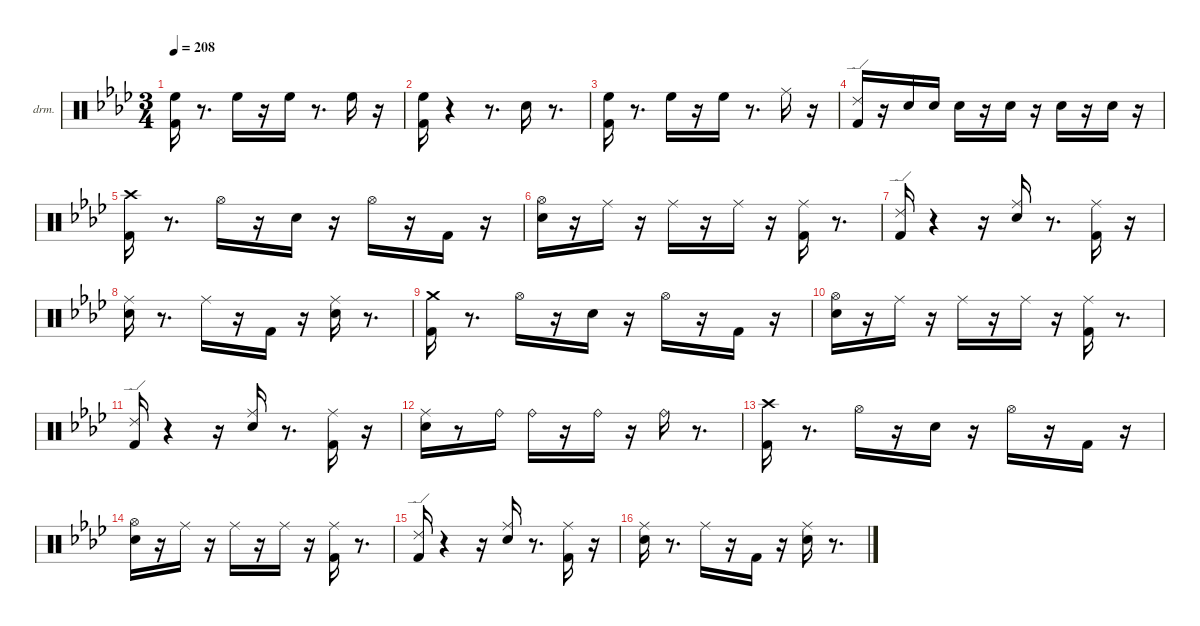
\hideDynamics
\bracketExtendMode nobrackets
\firstSystemTrackNameOrientation horizontal
\otherSystemsTrackNameOrientation horizontal
\track ("EZdrummer 3" "drm.") {instrument percussion}
\staff {score}
\articulation defaults
\ts (3 4)
\tempo 208
\clef neutral
\ks fminor
("Kick (hit) 2"{acc forcenatural} "High Floor Tom (hit)"{acc forcenatural}).16{dy fff beam Down} r.8{d beam Down} "High Floor Tom (hit)"{acc forcenatural}.16{dy pp beam Down} r.16{beam Down} "High Floor Tom (hit)"{acc forcenatural}.16{dy f beam Down} r.8{d beam Down} "High Floor Tom (hit)"{acc forcenatural}.16{dy p beam Down} r.16{beam Down} |
("Kick (hit) 2"{acc forcenatural} "High Floor Tom (hit)"{acc forcenatural}).16{dy fff beam Down} r.4{beam Down} r.8{d beam Down} "Snare (hit) 2"{acc forcenatural}.16{dy ff beam Down} r.8{d beam Down} |
("Kick (hit) 2"{acc forcenatural} "High Floor Tom (hit)"{acc forcenatural}).16{dy fff beam Down} r.8{d beam Down} "High Floor Tom (hit)"{acc forcenatural}.16{dy pp beam Down} r.16{beam Down} "High Floor Tom (hit)"{acc forcenatural}.16{dy f beam Down} r.8{d beam Down} "Ride (middle)"{acc b}.16{dy ppp beam Down} r.16{beam Down} |
("Kick (hit) 2"{acc forcenatural} "Ride (edge) 2"{acc forcenatural}).16{dy fff beam Up} r.16{beam Up} "Snare (hit) 2"{acc forcenatural}.16{dy pp beam Down} "Snare (hit) 2"{acc forcenatural}.16{dy ppp beam Down} "Snare (hit) 2"{acc forcenatural}.16{dy mp beam Down} r.16{beam Down} "Snare (hit) 2"{acc forcenatural}.16{dy fff beam Down} r.16{beam Down} "Snare (hit) 2"{acc forcenatural}.16{dy ff beam Down} r.16{beam Down} "Snare (hit) 2"{acc forcenatural}.16{dy fff beam Down} r.16{beam Down} |
("Kick (hit) 2"{acc forcenatural} "Crash high (hit)"{acc b}).16{beam Down} r.8{d beam Down} "Hi-Hat (open)"{acc b}.16{dy mf beam Down} r.16{beam Down} "Snare (hit) 2"{acc forcenatural}.16{dy f beam Down} r.16{beam Down} "Hi-Hat (open)"{acc b}.16{beam Down} r.16{beam Down} "Kick (hit) 2"{acc forcenatural}.16{dy ff beam Up} r.16{beam Up} |
("Snare (hit) 2"{acc forcenatural} "Hi-Hat (open)"{acc b}).16{beam Down} r.16{beam Down} "Ride (middle)"{acc b}.16{dy p beam Down} r.16{beam Down} "Ride (middle)"{acc b}.16{dy ff beam Down} r.16{beam Down} "Ride (middle)"{acc b}.16{dy f beam Down} r.16{beam Down} ("Kick (hit) 2"{acc forcenatural} "Ride (middle)"{acc b}).16{dy ff beam Down} r.8{d beam Down} |
("Kick (hit) 2"{acc forcenatural} "Ride (edge) 2"{acc forcenatural}).16{beam Up} r.4{beam Up} r.16{beam Up} ("Snare (hit) 2"{acc forcenatural} "Ride (middle)"{acc b}).16{dy f beam Down} r.8{d beam Down} ("Kick (hit) 2"{acc forcenatural} "Ride (middle)"{acc b}).16{dy ff beam Down} r.16{beam Down} |
("Snare (hit) 2"{acc forcenatural} "Ride (middle)"{acc b}).16{dy fff beam Down} r.8{d beam Down} "Ride (middle)"{acc b}.16{dy mf beam Down} r.16{beam Down} "Kick (hit) 2"{acc forcenatural}.16{dy f beam Up} r.16{beam Up} ("Snare (hit) 2"{acc forcenatural} "Ride (middle)"{acc b}).16{beam Down} r.8{d beam Down} |
("Kick (hit) 2"{acc forcenatural} "Crash medium (hit)"{acc forcenatural}).16{dy fff beam Down} r.8{d beam Down} "Hi-Hat (open)"{acc b}.16{dy mf beam Down} r.16{beam Down} "Snare (hit) 2"{acc forcenatural}.16{dy f beam Down} r.16{beam Down} "Hi-Hat (open)"{acc b}.16{beam Down} r.16{beam Down} "Kick (hit) 2"{acc forcenatural}.16{dy ff beam Up} r.16{beam Up} |
("Snare (hit) 2"{acc forcenatural} "Hi-Hat (open)"{acc b}).16{beam Down} r.16{beam Down} "Ride (middle)"{acc b}.16{dy p beam Down} r.16{beam Down} "Ride (middle)"{acc b}.16{dy ff beam Down} r.16{beam Down} "Ride (middle)"{acc b}.16{dy f beam Down} r.16{beam Down} ("Kick (hit) 2"{acc forcenatural} "Ride (middle)"{acc b}).16{dy ff beam Down} r.8{d beam Down} |
("Kick (hit) 2"{acc forcenatural} "Ride (edge) 2"{acc forcenatural}).16{beam Up} r.4{beam Up} r.16{beam Up} ("Snare (hit) 2"{acc forcenatural} "Ride (middle)"{acc b}).16{dy f beam Down} r.8{d beam Down} ("Kick (hit) 2"{acc forcenatural} "Ride (middle)"{acc b}).16{dy ff beam Down} r.16{beam Down} |
("Snare (hit) 2"{acc forcenatural} "Ride (middle)"{acc b}).16{beam Down} r.8{beam Down} "Ride (bell)"{acc forcenatural}.16{dy ppp beam Down} "Ride (bell)"{acc forcenatural}.16{dy f beam Down} r.16{beam Down} "Ride (bell)"{acc forcenatural}.16{dy ff beam Down} r.16{beam Down} "Ride (bell)"{acc forcenatural}.16{dy f beam Down} r.8{d beam Down} |
("Kick (hit) 2"{acc forcenatural} "Crash high (hit)"{acc b}).16{dy fff beam Down} r.8{d beam Down} "Hi-Hat (open)"{acc b}.16{dy mf beam Down} r.16{beam Down} "Snare (hit) 2"{acc forcenatural}.16{dy f beam Down} r.16{beam Down} "Hi-Hat (open)"{acc b}.16{beam Down} r.16{beam Down} "Kick (hit) 2"{acc forcenatural}.16{dy ff beam Up} r.16{beam Up} |
("Snare (hit) 2"{acc forcenatural} "Hi-Hat (open)"{acc b}).16{beam Down} r.16{beam Down} "Ride (middle)"{acc b}.16{dy p beam Down} r.16{beam Down} "Ride (middle)"{acc b}.16{dy ff beam Down} r.16{beam Down} "Ride (middle)"{acc b}.16{dy f beam Down} r.16{beam Down} ("Kick (hit) 2"{acc forcenatural} "Ride (middle)"{acc b}).16{dy ff beam Down} r.8{d beam Down} |
("Kick (hit) 2"{acc forcenatural} "Ride (edge) 2"{acc forcenatural}).16{beam Up} r.4{beam Up} r.16{beam Up} ("Snare (hit) 2"{acc forcenatural} "Ride (middle)"{acc b}).16{dy f beam Down} r.8{d beam Down} ("Kick (hit) 2"{acc forcenatural} "Ride (middle)"{acc b}).16{dy ff beam Down} r.16{beam Down} |
("Snare (hit) 2"{acc forcenatural} "Ride (middle)"{acc b}).16{dy fff beam Down} r.8{d beam Down} "Ride (middle)"{acc b}.16{dy mf beam Down} r.16{beam Down} "Kick (hit) 2"{acc forcenatural}.16{dy f beam Up} r.16{beam Up} ("Snare (hit) 2"{acc forcenatural} "Ride (middle)"{acc b}).16{beam Down} r.8{d beam Down}
